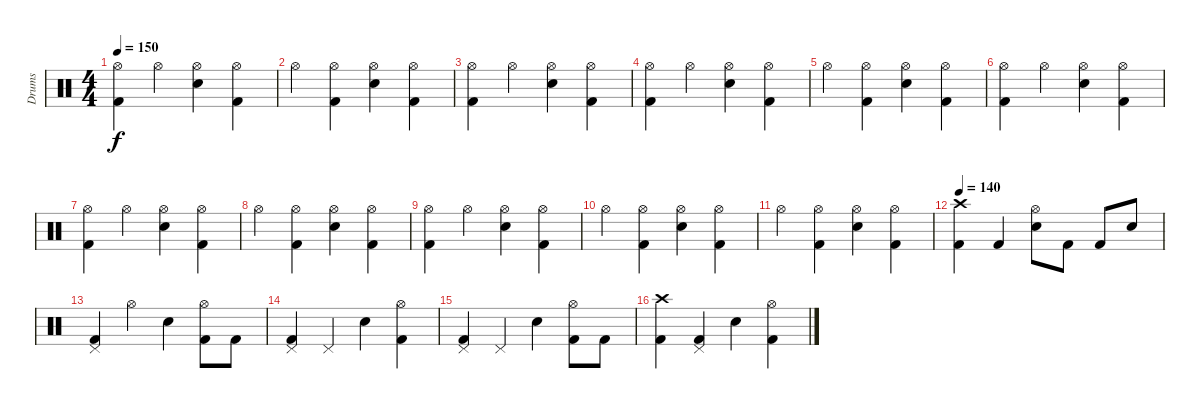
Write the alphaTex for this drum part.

\track ("Drums" "Drums") {instrument percussion}
\staff {score}
\articulation defaults
\ts (4 4)
\tempo 150
\clef neutral
\ks c
("Hi-Hat (open)" "Kick (hit) 2").4{dy f} "Hi-Hat (open)".4 ("Hi-Hat (open)" "Electric Snare (hit)").4 ("Hi-Hat (open)" "Kick (hit) 2").4 |
"Hi-Hat (open)".4 ("Hi-Hat (open)" "Kick (hit) 2").4 ("Hi-Hat (open)" "Electric Snare (hit)").4 ("Hi-Hat (open)" "Kick (hit) 2").4 |
("Hi-Hat (open)" "Kick (hit) 2").4 "Hi-Hat (open)".4 ("Hi-Hat (open)" "Electric Snare (hit)").4 ("Hi-Hat (open)" "Kick (hit) 2").4 |
("Hi-Hat (open)" "Kick (hit) 2").4 "Hi-Hat (open)".4 ("Hi-Hat (open)" "Electric Snare (hit)").4 ("Hi-Hat (open)" "Kick (hit) 2").4 |
"Hi-Hat (open)".4 ("Hi-Hat (open)" "Kick (hit) 2").4 ("Hi-Hat (open)" "Electric Snare (hit)").4 ("Hi-Hat (open)" "Kick (hit) 2").4 |
("Hi-Hat (open)" "Kick (hit) 2").4 "Hi-Hat (open)".4 ("Hi-Hat (open)" "Electric Snare (hit)").4 ("Hi-Hat (open)" "Kick (hit) 2").4 |
("Hi-Hat (open)" "Kick (hit) 2").4 "Hi-Hat (open)".4 ("Hi-Hat (open)" "Electric Snare (hit)").4 ("Hi-Hat (open)" "Kick (hit) 2").4 |
"Hi-Hat (open)".4 ("Hi-Hat (open)" "Kick (hit) 2").4 ("Hi-Hat (open)" "Electric Snare (hit)").4 ("Hi-Hat (open)" "Kick (hit) 2").4 |
("Hi-Hat (open)" "Kick (hit) 2").4 "Hi-Hat (open)".4 ("Hi-Hat (open)" "Electric Snare (hit)").4 ("Hi-Hat (open)" "Kick (hit) 2").4 |
"Hi-Hat (open)".4 ("Hi-Hat (open)" "Kick (hit) 2").4 ("Hi-Hat (open)" "Electric Snare (hit)").4 ("Hi-Hat (open)" "Kick (hit) 2").4 |
"Hi-Hat (open)".4 ("Hi-Hat (open)" "Kick (hit) 2").4 ("Hi-Hat (open)" "Electric Snare (hit)").4 ("Hi-Hat (open)" "Kick (hit) 2").4 |
\tempo 140
("Crash high (hit)" "Kick (hit) 2").4 "Kick (hit) 2".4 ("Hi-Hat (open)" "Electric Snare (hit)").8 "Kick (hit) 2".8 "Kick (hit) 2".8 "Electric Snare (hit)".8 |
("Pedal Hi-Hat (hit)" "Kick (hit) 2").4 "Hi-Hat (open)".4 "Electric Snare (hit)".4 ("Hi-Hat (open)" "Kick (hit) 2").8 "Kick (hit) 2".8 |
("Pedal Hi-Hat (hit)" "Kick (hit) 2").4 "Pedal Hi-Hat (hit)".4 "Electric Snare (hit)".4 ("Hi-Hat (open)" "Kick (hit) 2").4 |
("Pedal Hi-Hat (hit)" "Kick (hit) 2").4 "Pedal Hi-Hat (hit)".4 "Electric Snare (hit)".4 ("Hi-Hat (open)" "Kick (hit) 2").8 "Kick (hit) 2".8 |
("Crash high (hit)" "Kick (hit) 2").4 ("Pedal Hi-Hat (hit)" "Kick (hit) 2").4 "Electric Snare (hit)".4 ("Hi-Hat (open)" "Kick (hit) 2").4
